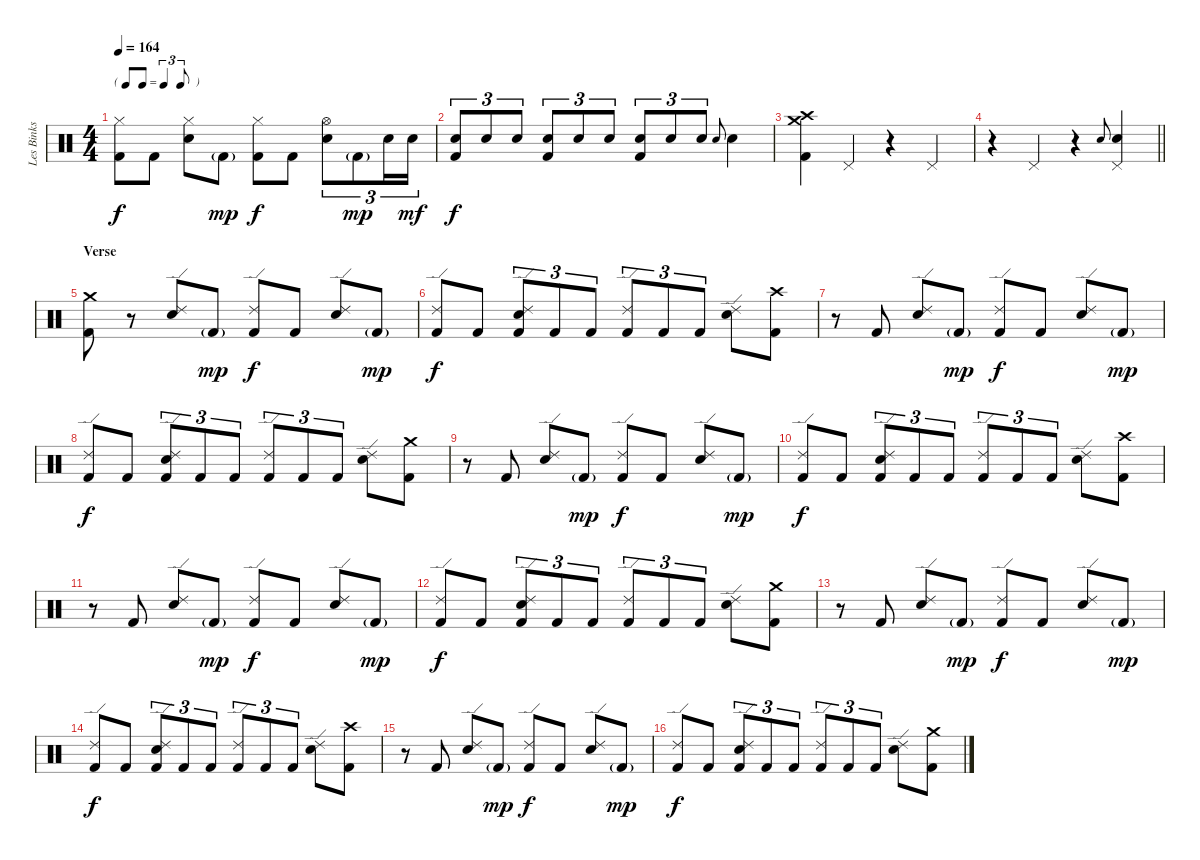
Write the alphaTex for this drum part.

\track ("Les Binks" "Les Binks") {instrument percussion}
\staff {score}
\articulation defaults
\ts (4 4)
\tf triplet8th
\tempo 164
\clef neutral
\ks c
("Hi-Hat (closed)" "Kick (hit) 2").8{dy f} "Kick (hit) 2".8 ("Hi-Hat (closed)" "Electric Snare (hit)").8 "Kick (hit) 2"{g}.8{dy mp} ("Hi-Hat (closed)" "Kick (hit) 2").8{dy f} "Kick (hit) 2".8 ("Hi-Hat (open)" "Electric Snare (hit)").8{tu (3 2)} "Kick (hit) 2"{g}.8{tu (3 2) dy mp} "Electric Snare (hit)".16{tu (3 2)} "Electric Snare (hit)".16{tu (3 2) dy mf} |
("Electric Snare (hit)" "Kick (hit) 2").8{tu (3 2) dy f} "Electric Snare (hit)".8{tu (3 2)} "Electric Snare (hit)".8{tu (3 2)} ("Electric Snare (hit)" "Kick (hit) 2").8{tu (3 2)} "Electric Snare (hit)".8{tu (3 2)} "Electric Snare (hit)".8{tu (3 2)} ("Electric Snare (hit)" "Kick (hit) 2").8{tu (3 2)} "Electric Snare (hit)".8{tu (3 2)} "Electric Snare (hit)".8{tu (3 2)} "Electric Snare (hit)".8{gr onbeat} "Electric Snare (hit)".4 |
("Crash high (hit)" "Crash medium (hit)" "Kick (hit) 2").4 "Pedal Hi-Hat (hit)".4 r.4 "Pedal Hi-Hat (hit)".4 |
\barLineRight lightlight
r.4 "Pedal Hi-Hat (hit)".4 r.4 "Electric Snare (hit)".8{gr onbeat} ("Pedal Hi-Hat (hit)" "Electric Snare (hit)").4 |
\section ("" "Verse")
("Crash medium (hit)" "Kick (hit) 2").8 r.8 ("Ride (edge) 2" "Electric Snare (hit)").8 "Kick (hit) 2"{g}.8{dy mp} ("Ride (edge) 2" "Kick (hit) 2").8{dy f} "Kick (hit) 2".8 ("Ride (edge) 2" "Electric Snare (hit)").8 "Kick (hit) 2"{g}.8{dy mp} |
("Ride (edge) 2" "Kick (hit) 2").8{dy f} "Kick (hit) 2".8 ("Ride (edge) 2" "Electric Snare (hit)" "Kick (hit) 2").8{tu (3 2)} "Kick (hit) 2".8{tu (3 2)} "Kick (hit) 2".8{tu (3 2)} ("Ride (edge) 2" "Kick (hit) 2").8{tu (3 2)} "Kick (hit) 2".8{tu (3 2)} "Kick (hit) 2".8{tu (3 2)} ("Ride (edge) 2" "Electric Snare (hit)").8 ("Crash high (hit)" "Kick (hit) 2").8 |
r.8 "Kick (hit) 2".8 ("Ride (edge) 2" "Electric Snare (hit)").8 "Kick (hit) 2"{g}.8{dy mp} ("Ride (edge) 2" "Kick (hit) 2").8{dy f} "Kick (hit) 2".8 ("Ride (edge) 2" "Electric Snare (hit)").8 "Kick (hit) 2"{g}.8{dy mp} |
("Ride (edge) 2" "Kick (hit) 2").8{dy f} "Kick (hit) 2".8 ("Ride (edge) 2" "Electric Snare (hit)" "Kick (hit) 2").8{tu (3 2)} "Kick (hit) 2".8{tu (3 2)} "Kick (hit) 2".8{tu (3 2)} ("Ride (edge) 2" "Kick (hit) 2").8{tu (3 2)} "Kick (hit) 2".8{tu (3 2)} "Kick (hit) 2".8{tu (3 2)} ("Ride (edge) 2" "Electric Snare (hit)").8 ("Crash medium (hit)" "Kick (hit) 2").8 |
r.8 "Kick (hit) 2".8 ("Ride (edge) 2" "Electric Snare (hit)").8 "Kick (hit) 2"{g}.8{dy mp} ("Ride (edge) 2" "Kick (hit) 2").8{dy f} "Kick (hit) 2".8 ("Ride (edge) 2" "Electric Snare (hit)").8 "Kick (hit) 2"{g}.8{dy mp} |
("Ride (edge) 2" "Kick (hit) 2").8{dy f} "Kick (hit) 2".8 ("Ride (edge) 2" "Electric Snare (hit)" "Kick (hit) 2").8{tu (3 2)} "Kick (hit) 2".8{tu (3 2)} "Kick (hit) 2".8{tu (3 2)} ("Ride (edge) 2" "Kick (hit) 2").8{tu (3 2)} "Kick (hit) 2".8{tu (3 2)} "Kick (hit) 2".8{tu (3 2)} ("Ride (edge) 2" "Electric Snare (hit)").8 ("Crash high (hit)" "Kick (hit) 2").8 |
r.8 "Kick (hit) 2".8 ("Ride (edge) 2" "Electric Snare (hit)").8 "Kick (hit) 2"{g}.8{dy mp} ("Ride (edge) 2" "Kick (hit) 2").8{dy f} "Kick (hit) 2".8 ("Ride (edge) 2" "Electric Snare (hit)").8 "Kick (hit) 2"{g}.8{dy mp} |
("Ride (edge) 2" "Kick (hit) 2").8{dy f} "Kick (hit) 2".8 ("Ride (edge) 2" "Electric Snare (hit)" "Kick (hit) 2").8{tu (3 2)} "Kick (hit) 2".8{tu (3 2)} "Kick (hit) 2".8{tu (3 2)} ("Ride (edge) 2" "Kick (hit) 2").8{tu (3 2)} "Kick (hit) 2".8{tu (3 2)} "Kick (hit) 2".8{tu (3 2)} ("Ride (edge) 2" "Electric Snare (hit)").8 ("Crash medium (hit)" "Kick (hit) 2").8 |
r.8 "Kick (hit) 2".8 ("Ride (edge) 2" "Electric Snare (hit)").8 "Kick (hit) 2"{g}.8{dy mp} ("Ride (edge) 2" "Kick (hit) 2").8{dy f} "Kick (hit) 2".8 ("Ride (edge) 2" "Electric Snare (hit)").8 "Kick (hit) 2"{g}.8{dy mp} |
("Ride (edge) 2" "Kick (hit) 2").8{dy f} "Kick (hit) 2".8 ("Ride (edge) 2" "Electric Snare (hit)" "Kick (hit) 2").8{tu (3 2)} "Kick (hit) 2".8{tu (3 2)} "Kick (hit) 2".8{tu (3 2)} ("Ride (edge) 2" "Kick (hit) 2").8{tu (3 2)} "Kick (hit) 2".8{tu (3 2)} "Kick (hit) 2".8{tu (3 2)} ("Ride (edge) 2" "Electric Snare (hit)").8 ("Crash high (hit)" "Kick (hit) 2").8 |
r.8 "Kick (hit) 2".8 ("Ride (edge) 2" "Electric Snare (hit)").8 "Kick (hit) 2"{g}.8{dy mp} ("Ride (edge) 2" "Kick (hit) 2").8{dy f} "Kick (hit) 2".8 ("Ride (edge) 2" "Electric Snare (hit)").8 "Kick (hit) 2"{g}.8{dy mp} |
("Ride (edge) 2" "Kick (hit) 2").8{dy f} "Kick (hit) 2".8 ("Ride (edge) 2" "Electric Snare (hit)" "Kick (hit) 2").8{tu (3 2)} "Kick (hit) 2".8{tu (3 2)} "Kick (hit) 2".8{tu (3 2)} ("Ride (edge) 2" "Kick (hit) 2").8{tu (3 2)} "Kick (hit) 2".8{tu (3 2)} "Kick (hit) 2".8{tu (3 2)} ("Ride (edge) 2" "Electric Snare (hit)").8 ("Crash medium (hit)" "Kick (hit) 2").8
